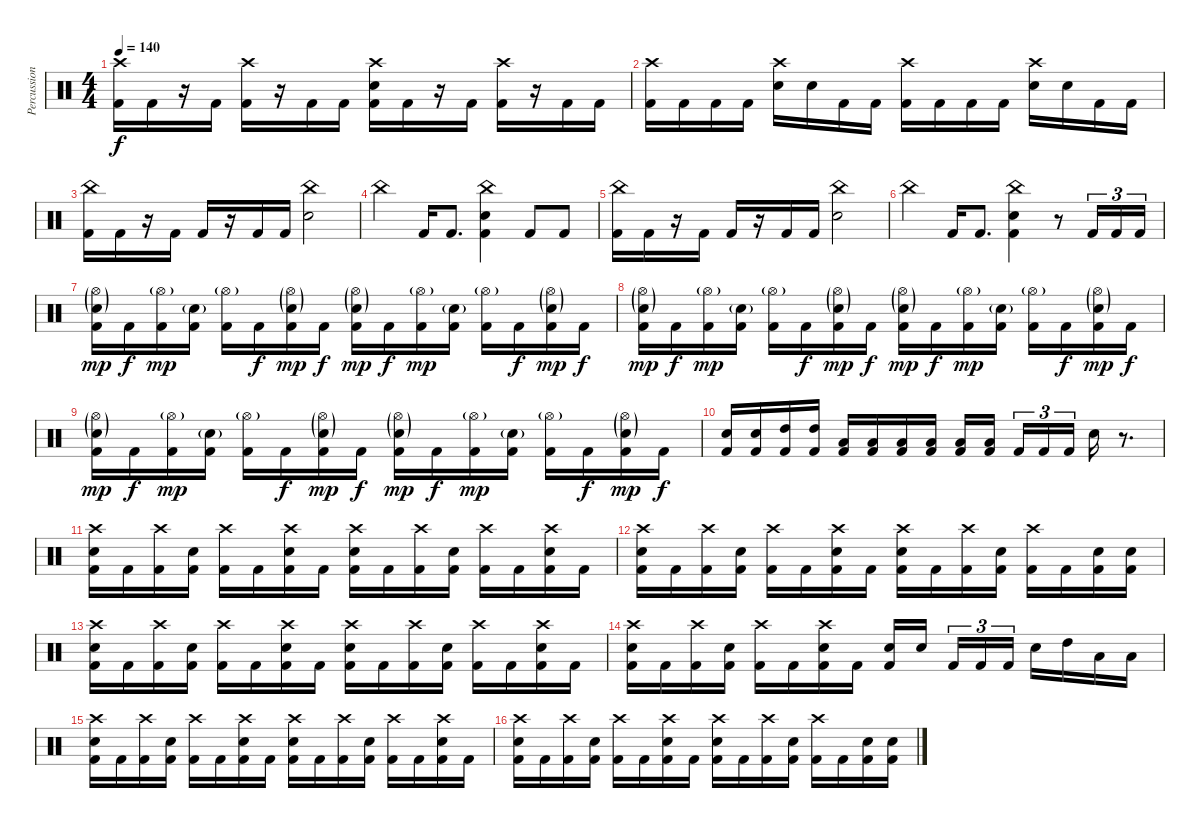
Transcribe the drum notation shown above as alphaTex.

\track ("Percussion" "Percussion") {instrument percussion}
\staff
\articulation defaults
\ts (4 4)
\tempo 140
\clef neutral
\ks c
("Crash high (hit)" "Kick (hit) 2").16{dy f} "Kick (hit) 2".16 r.16 "Kick (hit) 2".16 ("Crash high (hit)" "Kick (hit) 2").16 r.16 "Kick (hit) 2".16 "Kick (hit) 2".16 ("Crash high (hit)" "Electric Snare (hit)" "Kick (hit) 2").16 "Kick (hit) 2".16 r.16 "Kick (hit) 2".16 ("Crash high (hit)" "Kick (hit) 2").16 r.16 "Kick (hit) 2".16 "Kick (hit) 2".16 |
("Crash high (hit)" "Kick (hit) 2").16 "Kick (hit) 2".16 "Kick (hit) 2".16 "Kick (hit) 2".16 ("Crash high (hit)" "Electric Snare (hit)").16 "Electric Snare (hit)".16 "Kick (hit) 2".16 "Kick (hit) 2".16 ("Crash high (hit)" "Kick (hit) 2").16 "Kick (hit) 2".16 "Kick (hit) 2".16 "Kick (hit) 2".16 ("Crash high (hit)" "Electric Snare (hit)").16 "Electric Snare (hit)".16 "Kick (hit) 2".16 "Kick (hit) 2".16 |
("China (hit)" "Kick (hit) 2").16 "Kick (hit) 2".16 r.16 "Kick (hit) 2".16 "Kick (hit) 2".16 r.16 "Kick (hit) 2".16 "Kick (hit) 2".16 ("China (hit)" "Electric Snare (hit)").2 |
"China (hit)".4 "Kick (hit) 2".16 "Kick (hit) 2".8{d} ("China (hit)" "Electric Snare (hit)" "Kick (hit) 2").4 "Kick (hit) 2".8 "Kick (hit) 2".8 |
("China (hit)" "Kick (hit) 2").16 "Kick (hit) 2".16 r.16 "Kick (hit) 2".16 "Kick (hit) 2".16 r.16 "Kick (hit) 2".16 "Kick (hit) 2".16 ("China (hit)" "Electric Snare (hit)").2 |
"China (hit)".4 "Kick (hit) 2".16 "Kick (hit) 2".8{d} ("China (hit)" "Electric Snare (hit)" "Kick (hit) 2").4 r.8 "Kick (hit) 2".16{tu (3 2)} "Kick (hit) 2".16{tu (3 2)} "Kick (hit) 2".16{tu (3 2)} |
("Hi-Hat (open)"{g} "Electric Snare (hit)"{g} "Kick (hit) 2").16{dy mp} "Kick (hit) 2".16{dy f} ("Hi-Hat (open)"{g} "Kick (hit) 2").16{dy mp} ("Electric Snare (hit)"{g} "Kick (hit) 2").16 ("Hi-Hat (open)"{g} "Kick (hit) 2").16 "Kick (hit) 2".16{dy f} ("Hi-Hat (open)"{g} "Electric Snare (hit)"{g} "Kick (hit) 2").16{dy mp} "Kick (hit) 2".16{dy f} ("Hi-Hat (open)"{g} "Electric Snare (hit)"{g} "Kick (hit) 2").16{dy mp} "Kick (hit) 2".16{dy f} ("Hi-Hat (open)"{g} "Kick (hit) 2").16{dy mp} ("Electric Snare (hit)"{g} "Kick (hit) 2").16 ("Hi-Hat (open)"{g} "Kick (hit) 2").16 "Kick (hit) 2".16{dy f} ("Hi-Hat (open)"{g} "Electric Snare (hit)"{g} "Kick (hit) 2").16{dy mp} "Kick (hit) 2".16{dy f} |
("Hi-Hat (open)"{g} "Electric Snare (hit)"{g} "Kick (hit) 2").16{dy mp} "Kick (hit) 2".16{dy f} ("Hi-Hat (open)"{g} "Kick (hit) 2").16{dy mp} ("Electric Snare (hit)"{g} "Kick (hit) 2").16 ("Hi-Hat (open)"{g} "Kick (hit) 2").16 "Kick (hit) 2".16{dy f} ("Hi-Hat (open)"{g} "Electric Snare (hit)"{g} "Kick (hit) 2").16{dy mp} "Kick (hit) 2".16{dy f} ("Hi-Hat (open)"{g} "Electric Snare (hit)"{g} "Kick (hit) 2").16{dy mp} "Kick (hit) 2".16{dy f} ("Hi-Hat (open)"{g} "Kick (hit) 2").16{dy mp} ("Electric Snare (hit)"{g} "Kick (hit) 2").16 ("Hi-Hat (open)"{g} "Kick (hit) 2").16 "Kick (hit) 2".16{dy f} ("Hi-Hat (open)"{g} "Electric Snare (hit)"{g} "Kick (hit) 2").16{dy mp} "Kick (hit) 2".16{dy f} |
("Hi-Hat (open)"{g} "Electric Snare (hit)"{g} "Kick (hit) 2").16{dy mp} "Kick (hit) 2".16{dy f} ("Hi-Hat (open)"{g} "Kick (hit) 2").16{dy mp} ("Electric Snare (hit)"{g} "Kick (hit) 2").16 ("Hi-Hat (open)"{g} "Kick (hit) 2").16 "Kick (hit) 2".16{dy f} ("Hi-Hat (open)"{g} "Electric Snare (hit)"{g} "Kick (hit) 2").16{dy mp} "Kick (hit) 2".16{dy f} ("Hi-Hat (open)"{g} "Electric Snare (hit)"{g} "Kick (hit) 2").16{dy mp} "Kick (hit) 2".16{dy f} ("Hi-Hat (open)"{g} "Kick (hit) 2").16{dy mp} ("Electric Snare (hit)"{g} "Kick (hit) 2").16 ("Hi-Hat (open)"{g} "Kick (hit) 2").16 "Kick (hit) 2".16{dy f} ("Hi-Hat (open)"{g} "Electric Snare (hit)"{g} "Kick (hit) 2").16{dy mp} "Kick (hit) 2".16{dy f} |
("Electric Snare (hit)" "Kick (hit) 2").16 ("Electric Snare (hit)" "Kick (hit) 2").16 ("High Tom (hit)" "Kick (hit) 2").16 ("High Tom (hit)" "Kick (hit) 2").16 ("Low Tom (hit)" "Kick (hit) 2").16 ("Low Tom (hit)" "Kick (hit) 2").16 ("Low Tom (hit)" "Kick (hit) 2").16 ("Low Tom (hit)" "Kick (hit) 2").16 ("Low Floor Tom (hit)" "Kick (hit) 2").16 ("Low Floor Tom (hit)" "Kick (hit) 2").16{beam splitsecondary} "Kick (hit) 2".16{tu (3 2)} "Kick (hit) 2".16{tu (3 2)} "Kick (hit) 2".16{tu (3 2)} "Electric Snare (hit)".16 r.8{d} |
("Crash high (hit)" "Electric Snare (hit)" "Kick (hit) 2").16 "Kick (hit) 2".16 ("Crash high (hit)" "Kick (hit) 2").16 ("Electric Snare (hit)" "Kick (hit) 2").16 ("Crash high (hit)" "Kick (hit) 2").16 "Kick (hit) 2".16 ("Crash high (hit)" "Electric Snare (hit)" "Kick (hit) 2").16 "Kick (hit) 2".16 ("Crash high (hit)" "Electric Snare (hit)" "Kick (hit) 2").16 "Kick (hit) 2".16 ("Crash high (hit)" "Kick (hit) 2").16 ("Electric Snare (hit)" "Kick (hit) 2").16 ("Crash high (hit)" "Kick (hit) 2").16 "Kick (hit) 2".16 ("Crash high (hit)" "Electric Snare (hit)" "Kick (hit) 2").16 "Kick (hit) 2".16 |
("Crash high (hit)" "Electric Snare (hit)" "Kick (hit) 2").16 "Kick (hit) 2".16 ("Crash high (hit)" "Kick (hit) 2").16 ("Electric Snare (hit)" "Kick (hit) 2").16 ("Crash high (hit)" "Kick (hit) 2").16 "Kick (hit) 2".16 ("Crash high (hit)" "Electric Snare (hit)" "Kick (hit) 2").16 "Kick (hit) 2".16 ("Crash high (hit)" "Electric Snare (hit)" "Kick (hit) 2").16 "Kick (hit) 2".16 ("Crash high (hit)" "Kick (hit) 2").16 ("Electric Snare (hit)" "Kick (hit) 2").16 ("Crash high (hit)" "Kick (hit) 2").16 "Kick (hit) 2".16 ("Electric Snare (hit)" "Kick (hit) 2").16 ("Electric Snare (hit)" "Kick (hit) 2").16 |
("Crash high (hit)" "Electric Snare (hit)" "Kick (hit) 2").16 "Kick (hit) 2".16 ("Crash high (hit)" "Kick (hit) 2").16 ("Electric Snare (hit)" "Kick (hit) 2").16 ("Crash high (hit)" "Kick (hit) 2").16 "Kick (hit) 2".16 ("Crash high (hit)" "Electric Snare (hit)" "Kick (hit) 2").16 "Kick (hit) 2".16 ("Crash high (hit)" "Electric Snare (hit)" "Kick (hit) 2").16 "Kick (hit) 2".16 ("Crash high (hit)" "Kick (hit) 2").16 ("Electric Snare (hit)" "Kick (hit) 2").16 ("Crash high (hit)" "Kick (hit) 2").16 "Kick (hit) 2".16 ("Crash high (hit)" "Electric Snare (hit)" "Kick (hit) 2").16 "Kick (hit) 2".16 |
("Crash high (hit)" "Electric Snare (hit)" "Kick (hit) 2").16 "Kick (hit) 2".16 ("Crash high (hit)" "Kick (hit) 2").16 ("Electric Snare (hit)" "Kick (hit) 2").16 ("Crash high (hit)" "Kick (hit) 2").16 "Kick (hit) 2".16 ("Crash high (hit)" "Electric Snare (hit)" "Kick (hit) 2").16 "Kick (hit) 2".16 ("Electric Snare (hit)" "Kick (hit) 2").16 "Electric Snare (hit)".16{beam splitsecondary} "Kick (hit) 2".16{tu (3 2)} "Kick (hit) 2".16{tu (3 2)} "Kick (hit) 2".16{tu (3 2)} "Electric Snare (hit)".16 "High Tom (hit)".16 "Low Tom (hit)".16 "Low Floor Tom (hit)".16 |
("Crash high (hit)" "Electric Snare (hit)" "Kick (hit) 2").16 "Kick (hit) 2".16 ("Crash high (hit)" "Kick (hit) 2").16 ("Electric Snare (hit)" "Kick (hit) 2").16 ("Crash high (hit)" "Kick (hit) 2").16 "Kick (hit) 2".16 ("Crash high (hit)" "Electric Snare (hit)" "Kick (hit) 2").16 "Kick (hit) 2".16 ("Crash high (hit)" "Electric Snare (hit)" "Kick (hit) 2").16 "Kick (hit) 2".16 ("Crash high (hit)" "Kick (hit) 2").16 ("Electric Snare (hit)" "Kick (hit) 2").16 ("Crash high (hit)" "Kick (hit) 2").16 "Kick (hit) 2".16 ("Crash high (hit)" "Electric Snare (hit)" "Kick (hit) 2").16 "Kick (hit) 2".16 |
("Crash high (hit)" "Electric Snare (hit)" "Kick (hit) 2").16 "Kick (hit) 2".16 ("Crash high (hit)" "Kick (hit) 2").16 ("Electric Snare (hit)" "Kick (hit) 2").16 ("Crash high (hit)" "Kick (hit) 2").16 "Kick (hit) 2".16 ("Crash high (hit)" "Electric Snare (hit)" "Kick (hit) 2").16 "Kick (hit) 2".16 ("Crash high (hit)" "Electric Snare (hit)" "Kick (hit) 2").16 "Kick (hit) 2".16 ("Crash high (hit)" "Kick (hit) 2").16 ("Electric Snare (hit)" "Kick (hit) 2").16 ("Crash high (hit)" "Kick (hit) 2").16 "Kick (hit) 2".16 ("Electric Snare (hit)" "Kick (hit) 2").16 ("Electric Snare (hit)" "Kick (hit) 2").16
